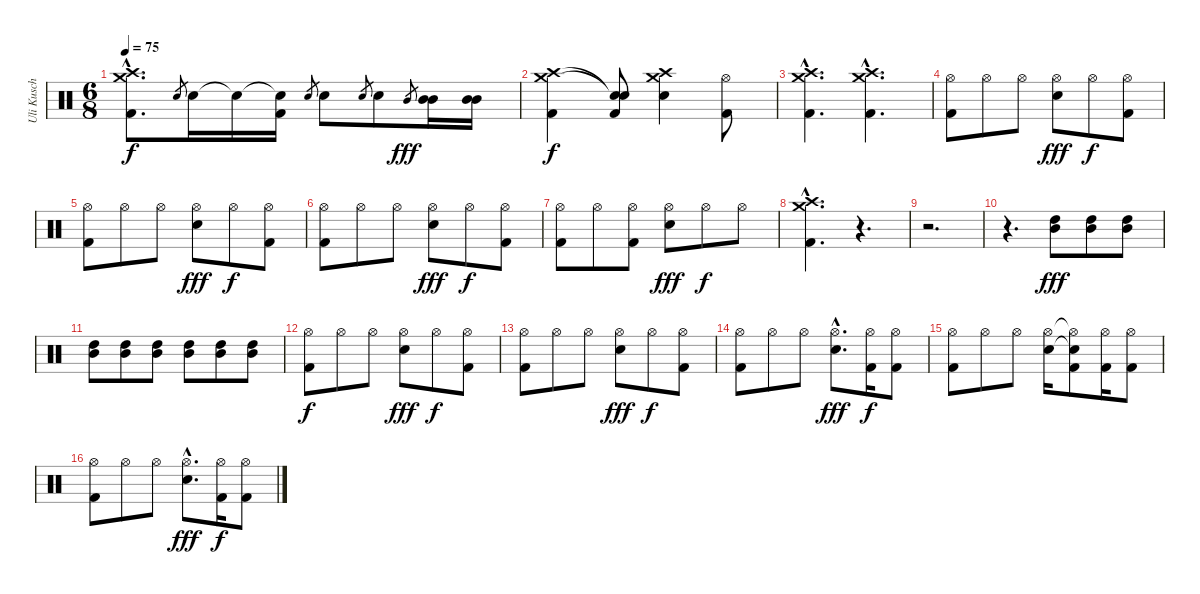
\track ("Uli Kusch" "Uli Kusch") {instrument percussion}
\staff {score}
\articulation defaults
\ts (6 8)
\tempo 75
\clef neutral
\ks c
("Crash high (hit)"{hac} "Crash medium (hit)"{hac} "Kick (hit) 2"{hac}).8{d dy f} "Electric Snare (hit)".8{gr} "Electric Snare (hit)".16 "Snare (hit)"{t}.16 ("Snare (hit)"{t} "Kick (hit) 2").16 "Electric Snare (hit)".8{gr} "Electric Snare (hit)".8 "Electric Snare (hit)".8{gr} "Electric Snare (hit)".8 "Mid Tom (hit)".8{gr dy fff} ("Mid Tom (hit)" "Mid Tom (hit)").16 ("Mid Tom (hit)" "Mid Tom (hit)").16 |
("Crash high (hit)" "Crash medium (hit)" "Kick (hit) 2").4{dy f} ("Snare (hit)"{t} "Snare (hit)"{t} "Kick (hit) 2").8 ("Crash high (hit)" "Crash medium (hit)" "Electric Snare (hit)").4 ("Hi-Hat (open)" "Kick (hit) 2").8 |
("Crash high (hit)"{hac} "Crash medium (hit)"{hac} "Kick (hit) 2"{hac}).4{d} ("Crash high (hit)"{hac} "Crash medium (hit)"{hac} "Kick (hit) 2"{hac}).4{d} |
("Hi-Hat (open)" "Kick (hit) 2").8 "Hi-Hat (open)".8 "Hi-Hat (open)".8 ("Hi-Hat (open)" "Electric Snare (hit)").8{dy fff} "Hi-Hat (open)".8{dy f} ("Hi-Hat (open)" "Kick (hit) 2").8 |
("Hi-Hat (open)" "Kick (hit) 2").8 "Hi-Hat (open)".8 "Hi-Hat (open)".8 ("Hi-Hat (open)" "Electric Snare (hit)").8{dy fff} "Hi-Hat (open)".8{dy f} ("Hi-Hat (open)" "Kick (hit) 2").8 |
("Hi-Hat (open)" "Kick (hit) 2").8 "Hi-Hat (open)".8 "Hi-Hat (open)".8 ("Hi-Hat (open)" "Electric Snare (hit)").8{dy fff} "Hi-Hat (open)".8{dy f} ("Hi-Hat (open)" "Kick (hit) 2").8 |
("Hi-Hat (open)" "Kick (hit) 2").8 "Hi-Hat (open)".8 ("Hi-Hat (open)" "Kick (hit) 2").8 ("Hi-Hat (open)" "Electric Snare (hit)").8{dy fff} "Hi-Hat (open)".8{dy f} "Hi-Hat (open)".8 |
("Crash medium (hit)"{hac} "Crash high (hit)"{hac} "Kick (hit) 2"{hac}).4{d} r.4{d} |
r.2{d} |
r.4{d} ("High Tom (hit)" "Mid Tom (hit)").8{dy fff} ("High Tom (hit)" "Mid Tom (hit)").8 ("High Tom (hit)" "Mid Tom (hit)").8 |
("High Tom (hit)" "Mid Tom (hit)").8 ("High Tom (hit)" "Mid Tom (hit)").8 ("High Tom (hit)" "Mid Tom (hit)").8 ("High Tom (hit)" "Mid Tom (hit)").8 ("High Tom (hit)" "Mid Tom (hit)").8 ("High Tom (hit)" "Mid Tom (hit)").8 |
("Hi-Hat (open)" "Kick (hit) 2").8{dy f} "Hi-Hat (open)".8 "Hi-Hat (open)".8 ("Hi-Hat (open)" "Electric Snare (hit)").8{dy fff} "Hi-Hat (open)".8{dy f} ("Hi-Hat (open)" "Kick (hit) 2").8 |
("Hi-Hat (open)" "Kick (hit) 2").8 "Hi-Hat (open)".8 "Hi-Hat (open)".8 ("Hi-Hat (open)" "Electric Snare (hit)").8{dy fff} "Hi-Hat (open)".8{dy f} ("Hi-Hat (open)" "Kick (hit) 2").8 |
("Hi-Hat (open)" "Kick (hit) 2").8 "Hi-Hat (open)".8 "Hi-Hat (open)".8 ("Hi-Hat (open)"{hac} "Electric Snare (hit)"{hac}).8{d dy fff} ("Hi-Hat (open)" "Kick (hit) 2").16{dy f} ("Hi-Hat (open)" "Kick (hit) 2").8 |
("Hi-Hat (open)" "Kick (hit) 2").8 "Hi-Hat (open)".8 "Hi-Hat (open)".8 ("Hi-Hat (open)" "Electric Snare (hit)").16 ("Hi-Hat (open)"{t} "Snare (hit)"{t} "Kick (hit) 2").8 ("Hi-Hat (open)" "Kick (hit) 2").16 ("Hi-Hat (open)" "Kick (hit) 2").8 |
("Hi-Hat (open)" "Kick (hit) 2").8 "Hi-Hat (open)".8 "Hi-Hat (open)".8 ("Hi-Hat (open)"{hac} "Electric Snare (hit)"{hac}).8{d dy fff} ("Hi-Hat (open)" "Kick (hit) 2").16{dy f} ("Hi-Hat (open)" "Kick (hit) 2").8
